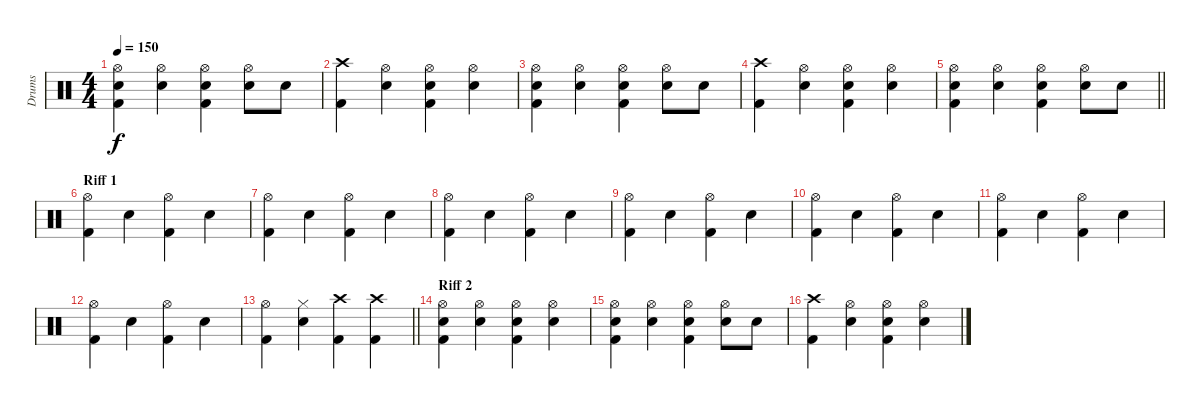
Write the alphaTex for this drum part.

\track ("Drums" "Drums") {instrument percussion}
\staff
\articulation defaults
\ts (4 4)
\tempo 150
\clef neutral
\ks c
("Hi-Hat (open)" "Snare (hit) 2" "Kick (hit) 2").4{dy f} ("Hi-Hat (open)" "Snare (hit) 2").4 ("Hi-Hat (open)" "Snare (hit) 2" "Kick (hit) 2").4 ("Hi-Hat (open)" "Snare (hit) 2").8 "Snare (hit) 2".8 |
("Crash high (hit)" "Kick (hit) 2").4 ("Hi-Hat (open)" "Snare (hit) 2").4 ("Hi-Hat (open)" "Snare (hit) 2" "Kick (hit) 2").4 ("Hi-Hat (open)" "Snare (hit) 2").4 |
("Hi-Hat (open)" "Snare (hit) 2" "Kick (hit) 2").4 ("Hi-Hat (open)" "Snare (hit) 2").4 ("Hi-Hat (open)" "Snare (hit) 2" "Kick (hit) 2").4 ("Hi-Hat (open)" "Snare (hit) 2").8 "Snare (hit) 2".8 |
("Crash high (hit)" "Kick (hit) 2").4 ("Hi-Hat (open)" "Snare (hit) 2").4 ("Hi-Hat (open)" "Snare (hit) 2" "Kick (hit) 2").4 ("Hi-Hat (open)" "Snare (hit) 2").4 |
\barLineRight lightlight
("Hi-Hat (open)" "Snare (hit) 2" "Kick (hit) 2").4 ("Hi-Hat (open)" "Snare (hit) 2").4 ("Hi-Hat (open)" "Snare (hit) 2" "Kick (hit) 2").4 ("Hi-Hat (open)" "Snare (hit) 2").8 "Snare (hit) 2".8 |
\section ("" "Riff 1")
("Hi-Hat (open)" "Kick (hit) 2").4 "Snare (hit) 2".4 ("Hi-Hat (open)" "Kick (hit) 2").4 "Snare (hit) 2".4 |
("Hi-Hat (open)" "Kick (hit) 2").4 "Snare (hit) 2".4 ("Hi-Hat (open)" "Kick (hit) 2").4 "Snare (hit) 2".4 |
("Hi-Hat (open)" "Kick (hit) 2").4 "Snare (hit) 2".4 ("Hi-Hat (open)" "Kick (hit) 2").4 "Snare (hit) 2".4 |
("Hi-Hat (open)" "Kick (hit) 2").4 "Snare (hit) 2".4 ("Hi-Hat (open)" "Kick (hit) 2").4 "Snare (hit) 2".4 |
("Hi-Hat (open)" "Kick (hit) 2").4 "Snare (hit) 2".4 ("Hi-Hat (open)" "Kick (hit) 2").4 "Snare (hit) 2".4 |
("Hi-Hat (open)" "Kick (hit) 2").4 "Snare (hit) 2".4 ("Hi-Hat (open)" "Kick (hit) 2").4 "Snare (hit) 2".4 |
("Hi-Hat (open)" "Kick (hit) 2").4 "Snare (hit) 2".4 ("Hi-Hat (open)" "Kick (hit) 2").4 "Snare (hit) 2".4 |
\barLineRight lightlight
("Hi-Hat (open)" "Kick (hit) 2").4 ("Hi-Hat (closed)" "Snare (hit) 2").4 ("Crash high (hit)" "Kick (hit) 2").4 ("Crash high (hit)" "Kick (hit) 2").4 |
\section ("" "Riff 2")
("Hi-Hat (open)" "Snare (hit) 2" "Kick (hit) 2").4 ("Hi-Hat (open)" "Snare (hit) 2").4 ("Hi-Hat (open)" "Snare (hit) 2" "Kick (hit) 2").4 ("Hi-Hat (open)" "Snare (hit) 2").4 |
("Hi-Hat (open)" "Snare (hit) 2" "Kick (hit) 2").4 ("Hi-Hat (open)" "Snare (hit) 2").4 ("Hi-Hat (open)" "Snare (hit) 2" "Kick (hit) 2").4 ("Hi-Hat (open)" "Snare (hit) 2").8 "Snare (hit) 2".8 |
("Crash high (hit)" "Kick (hit) 2").4 ("Hi-Hat (open)" "Snare (hit) 2").4 ("Hi-Hat (open)" "Snare (hit) 2" "Kick (hit) 2").4 ("Hi-Hat (open)" "Snare (hit) 2").4
